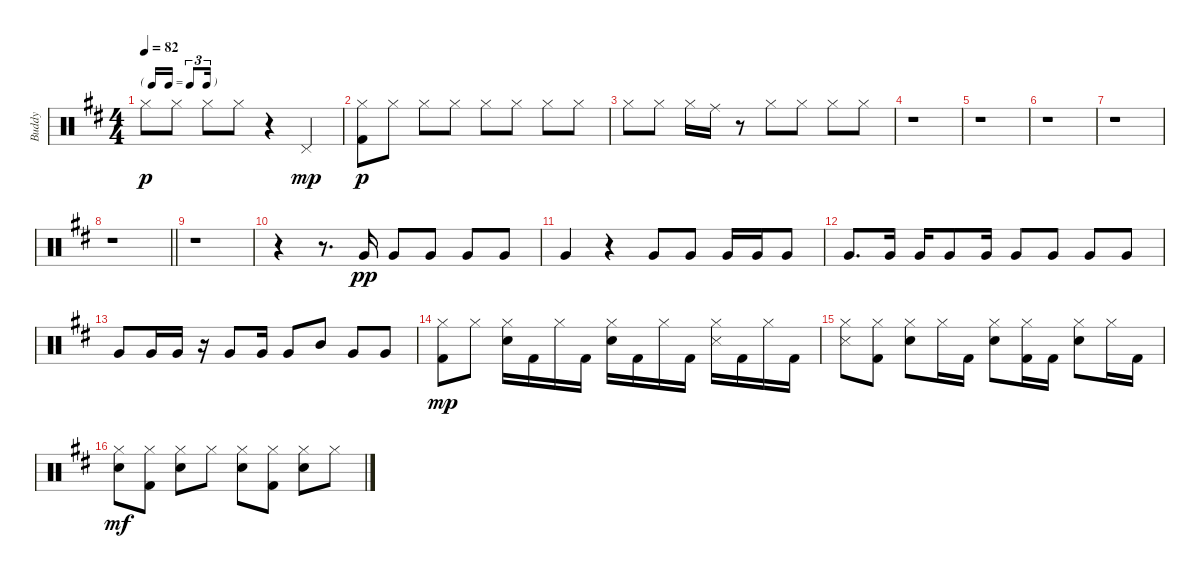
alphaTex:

\track ("Buddy" "Buddy") {instrument percussion}
\staff {score}
\articulation defaults
\ts (4 4)
\tf triplet16th
\tempo 82
\clef neutral
\ks d "Hi-Hat (closed)".8{dy p} "Hi-Hat (closed)".8 "Hi-Hat (closed)".8 "Hi-Hat (closed)".8
r.4 "Pedal Hi-Hat (hit)".4{dy mp} |
("Hi-Hat (closed)" "Kick (hit) 2").8{dy p} "Hi-Hat (closed)".8 "Hi-Hat (closed)".8 "Hi-Hat (closed)".8 "Hi-Hat (closed)".8 "Hi-Hat (closed)".8 "Hi-Hat (closed)".8 "Hi-Hat (closed)".8 |
"Hi-Hat (closed)".8 "Hi-Hat (closed)".8 "Hi-Hat (closed)".16 "Ride (middle)".16 r.8 "Hi-Hat (closed)".8 "Hi-Hat (closed)".8 "Hi-Hat (closed)".8 "Hi-Hat (closed)".8 |
r.1 |
r.1 |
r.1 |
r.1 |
\barLineRight lightlight
r.1 |
r.1 |
r.4 r.8{d} "Very Low Tom (hit)".16{dy pp} "Very Low Tom (hit)".8 "Very Low Tom (hit)".8 "Very Low Tom (hit)".8 "Very Low Tom (hit)".8 |
"Very Low Tom (hit)".4 r.4 "Very Low Tom (hit)".8 "Very Low Tom (hit)".8 "Very Low Tom (hit)".16 "Very Low Tom (hit)".16 "Very Low Tom (hit)".8 |
"Very Low Tom (hit)".8{d} "Very Low Tom (hit)".16 "Very Low Tom (hit)".16 "Very Low Tom (hit)".8 "Very Low Tom (hit)".16 "Very Low Tom (hit)".8 "Very Low Tom (hit)".8 "Very Low Tom (hit)".8 "Very Low Tom (hit)".8 |
"Very Low Tom (hit)".8 "Very Low Tom (hit)".16 "Very Low Tom (hit)".16 r.16 "Very Low Tom (hit)".8 "Very Low Tom (hit)".16 "Very Low Tom (hit)".8 "Mid Tom (hit)".8 "Very Low Tom (hit)".8 "Very Low Tom (hit)".8 |
("Hi-Hat (closed)" "Kick (hit) 2").8{dy mp} "Hi-Hat (closed)".8 ("Hi-Hat (closed)" "Snare (hit) 2").16 "Kick (hit) 2".16 "Hi-Hat (closed)".16 "Kick (hit) 2".16 ("Hi-Hat (closed)" "Snare (hit) 2").16 "Kick (hit) 2".16 "Hi-Hat (closed)".16 "Kick (hit) 2".16 ("Hi-Hat (closed)" "Snare (side stick) 3").16 "Kick (hit) 2".16 "Hi-Hat (closed)".16 "Kick (hit) 2".16 |
("Hi-Hat (closed)" "Snare (side stick) 3").8 ("Hi-Hat (closed)" "Kick (hit) 2").8 ("Hi-Hat (closed)" "Snare (hit) 2").8 "Hi-Hat (closed)".16 "Kick (hit) 2".16 ("Hi-Hat (closed)" "Snare (hit) 2").8 ("Hi-Hat (closed)" "Kick (hit) 2").16 "Kick (hit) 2".16 ("Hi-Hat (closed)" "Snare (hit) 2").8 "Hi-Hat (closed)".16 "Kick (hit) 2".16 |
("Hi-Hat (closed)" "Snare (hit) 2").8{dy mf} ("Hi-Hat (closed)" "Kick (hit) 2").8 ("Hi-Hat (closed)" "Snare (hit) 2").8 "Hi-Hat (closed)".8 ("Hi-Hat (closed)" "Snare (hit) 2").8 ("Hi-Hat (closed)" "Kick (hit) 2").8 ("Hi-Hat (closed)" "Snare (hit) 2").8 "Hi-Hat (closed)".8
